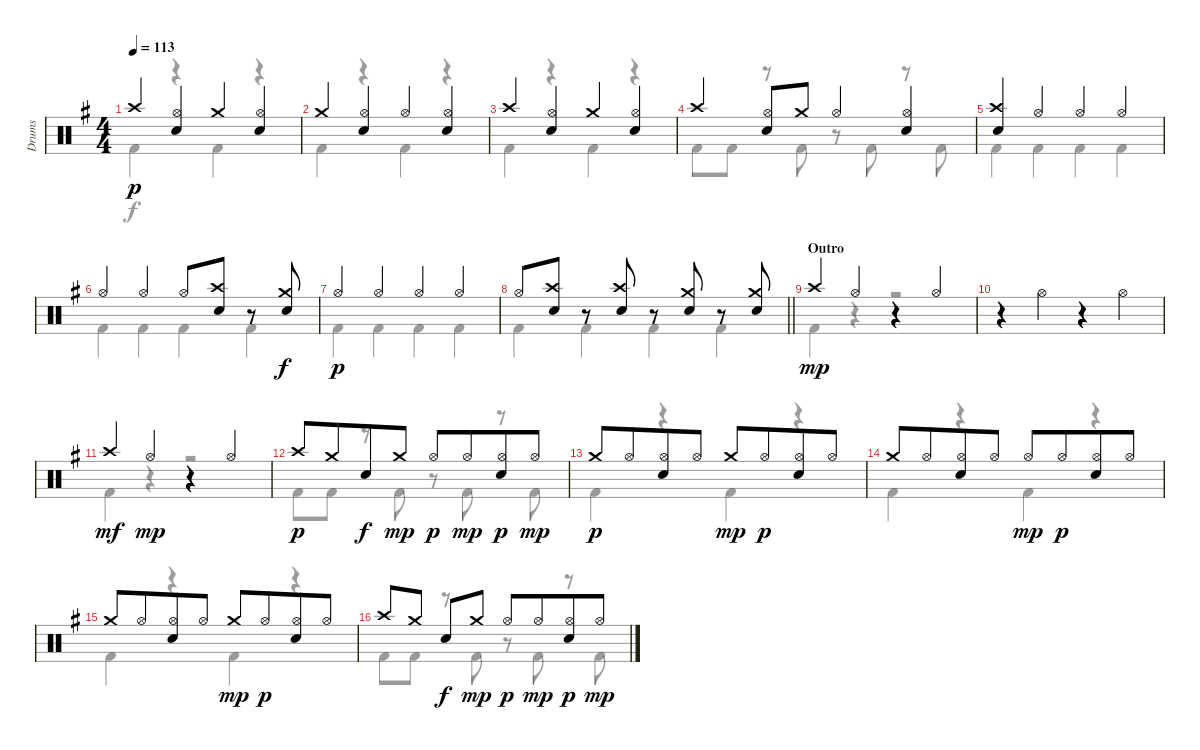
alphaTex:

\track ("Drums" "Drums") {instrument percussion}
\staff {score}
\articulation defaults
\voice
\ts (4 4)
\tempo 113
\clef neutral
\ks g "Crash high (hit)".4{dy p}
("Hi-Hat (open)" "Electric Snare (hit)").4 "Crash medium (hit)".4 ("Hi-Hat (open)" "Electric Snare (hit)").4 |
"Crash medium (hit)".4 ("Hi-Hat (open)" "Electric Snare (hit)").4 "Hi-Hat (open)".4 ("Hi-Hat (open)" "Electric Snare (hit)").4 |
"Crash high (hit)".4 ("Hi-Hat (open)" "Electric Snare (hit)").4 "Crash medium (hit)".4 ("Hi-Hat (open)" "Electric Snare (hit)").4 |
"Crash high (hit)".4 ("Electric Snare (hit)" "Hi-Hat (open)").8 "Crash medium (hit)".8 "Hi-Hat (open)".4 ("Electric Snare (hit)" "Hi-Hat (open)").4 |
("Crash high (hit)" "Electric Snare (hit)").4 "Hi-Hat (open)".4 "Hi-Hat (open)".4 "Hi-Hat (open)".4 |
"Hi-Hat (open)".4 "Hi-Hat (open)".4 "Hi-Hat (open)".8 ("Electric Snare (hit)" "Crash high (hit)").8 r.8 ("Electric Snare (hit)" "Crash medium (hit)").8{dy f} |
"Hi-Hat (open)".4{dy p} "Hi-Hat (open)".4 "Hi-Hat (open)".4 "Hi-Hat (open)".4 |
\barLineRight lightlight "Hi-Hat (open)".8
("Electric Snare (hit)" "Crash high (hit)").8 r.8 ("Electric Snare (hit)" "Crash high (hit)").8 r.8 ("Electric Snare (hit)" "Crash medium (hit)").8 r.8 ("Electric Snare (hit)" "Crash medium (hit)").8 |
\section ("" "Outro")
"Crash high (hit)".4{dy mp} "Hi-Hat (open)".4 r.4 "Hi-Hat (open)".4 |
r.4 "Hi-Hat (open)".4 r.4 "Hi-Hat (open)".4 |
"Crash high (hit)".4{dy mf} "Hi-Hat (open)".4{dy mp} r.4 "Hi-Hat (open)".4 |
"Crash high (hit)".8{dy p} "Crash medium (hit)".8{beam merge} "Electric Snare (hit)".8{dy f} "Crash medium (hit)".8{dy mp} "Hi-Hat (open)".8{dy p} "Hi-Hat (open)".8{dy mp beam merge} ("Electric Snare (hit)" "Hi-Hat (open)").8{dy p} "Hi-Hat (open)".8{dy mp} |
"Crash medium (hit)".8{dy p} "Hi-Hat (open)".8{beam merge} ("Hi-Hat (open)" "Electric Snare (hit)").8 "Hi-Hat (open)".8 "Crash medium (hit)".8{dy mp} "Hi-Hat (open)".8{dy p beam merge} ("Hi-Hat (open)" "Electric Snare (hit)").8 "Hi-Hat (open)".8 |
"Crash medium (hit)".8 "Hi-Hat (open)".8{beam merge} ("Hi-Hat (open)" "Electric Snare (hit)").8 "Hi-Hat (open)".8 "Hi-Hat (open)".8{dy mp} "Hi-Hat (open)".8{dy p beam merge} ("Hi-Hat (open)" "Electric Snare (hit)").8 "Hi-Hat (open)".8 |
"Crash medium (hit)".8 "Hi-Hat (open)".8{beam merge} ("Hi-Hat (open)" "Electric Snare (hit)").8 "Hi-Hat (open)".8 "Crash medium (hit)".8{dy mp} "Hi-Hat (open)".8{dy p beam merge} ("Hi-Hat (open)" "Electric Snare (hit)").8 "Hi-Hat (open)".8 |
"Crash high (hit)".8 "Crash medium (hit)".8 "Electric Snare (hit)".8{dy f} "Crash medium (hit)".8{dy mp} "Hi-Hat (open)".8{dy p} "Hi-Hat (open)".8{dy mp beam merge} ("Electric Snare (hit)" "Hi-Hat (open)").8{dy p} "Hi-Hat (open)".8{dy mp}
\voice
\clef neutral
\ottava regular
\simile none
\ks g "Kick (hit) 2".4{dy f}
r.4 "Kick (hit) 2".4 r.4 |
"Kick (hit) 2".4 r.4 "Kick (hit) 2".4 r.4 |
"Kick (hit) 2".4 r.4 "Kick (hit) 2".4 r.4 |
"Kick (hit) 2".8 "Kick (hit) 2".8 r.8 "Kick (hit) 2".8 r.8 "Kick (hit) 2".8 r.8 "Kick (hit) 2".8 |
"Kick (hit) 2".4 "Kick (hit) 2".4 "Kick (hit) 2".4 "Kick (hit) 2".4 |
"Kick (hit) 2".4 "Kick (hit) 2".4 "Kick (hit) 2".4 "Kick (hit) 2".4 |
"Kick (hit) 2".4 "Kick (hit) 2".4 "Kick (hit) 2".4 "Kick (hit) 2".4 |
\barLineRight lightlight "Kick (hit) 2".4 "Kick (hit) 2".4 "Kick (hit) 2".4 "Kick (hit) 2".4
|
"Kick (hit) 2".4 r.4 r.2 |
|
"Kick (hit) 2".4 r.4 r.2 |
"Kick (hit) 2".8 "Kick (hit) 2".8 r.8 "Kick (hit) 2".8 r.8 "Kick (hit) 2".8 r.8 "Kick (hit) 2".8 |
"Kick (hit) 2".4 r.4 "Kick (hit) 2".4 r.4 |
"Kick (hit) 2".4 r.4 "Kick (hit) 2".4 r.4 |
"Kick (hit) 2".4 r.4 "Kick (hit) 2".4 r.4 |
"Kick (hit) 2".8 "Kick (hit) 2".8 r.8 "Kick (hit) 2".8 r.8 "Kick (hit) 2".8 r.8 "Kick (hit) 2".8
